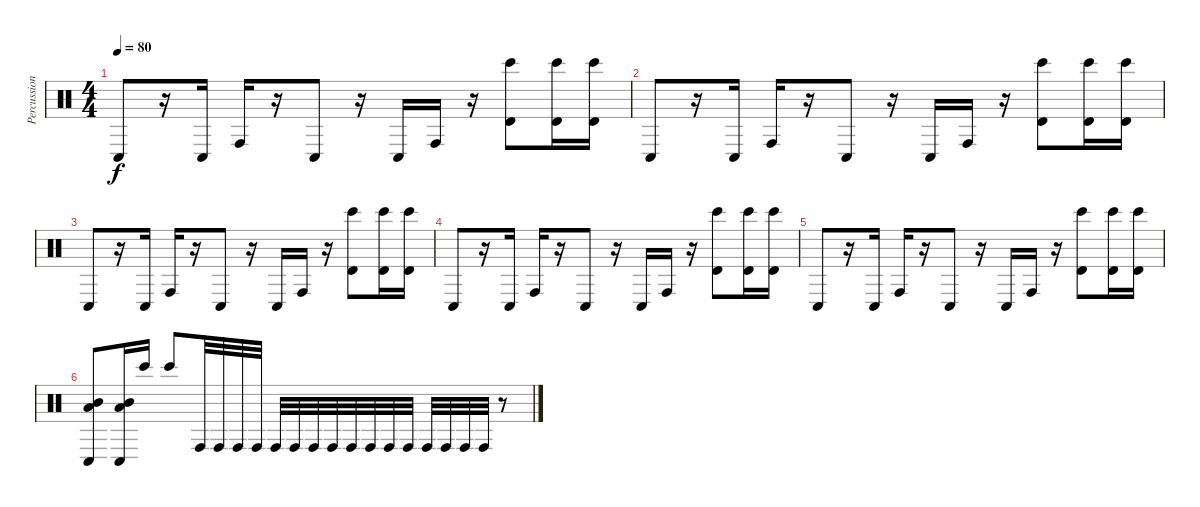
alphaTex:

\track ("Percussion" "Percussion") {instrument percussion}
\staff {score}
\articulation defaults
\ts (4 4)
\tempo 80
\clef neutral
\ks c "Conga low (hit)".8{dy f}
r.16 "Conga low (hit)".16 "Conga high (hit)".16 r.16 "Conga low (hit)".8 r.16 "Conga low (hit)".16 "Conga high (hit)".16 r.16 ("Bongo High (hit)" "Timbale high (hit)").8 ("Bongo High (hit)" "Timbale high (hit)").16 ("Bongo High (hit)" "Timbale high (hit)").16 |
"Conga low (hit)".8 r.16 "Conga low (hit)".16 "Conga high (hit)".16 r.16 "Conga low (hit)".8 r.16 "Conga low (hit)".16 "Conga high (hit)".16 r.16 ("Bongo High (hit)" "Timbale high (hit)").8 ("Bongo High (hit)" "Timbale high (hit)").16 ("Bongo High (hit)" "Timbale high (hit)").16 |
"Conga low (hit)".8 r.16 "Conga low (hit)".16 "Conga high (hit)".16 r.16 "Conga low (hit)".8 r.16 "Conga low (hit)".16 "Conga high (hit)".16 r.16 ("Bongo High (hit)" "Timbale high (hit)").8 ("Bongo High (hit)" "Timbale high (hit)").16 ("Bongo High (hit)" "Timbale high (hit)").16 |
"Conga low (hit)".8 r.16 "Conga low (hit)".16 "Conga high (hit)".16 r.16 "Conga low (hit)".8 r.16 "Conga low (hit)".16 "Conga high (hit)".16 r.16 ("Bongo High (hit)" "Timbale high (hit)").8 ("Bongo High (hit)" "Timbale high (hit)").16 ("Bongo High (hit)" "Timbale high (hit)").16 |
"Conga low (hit)".8 r.16 "Conga low (hit)".16 "Conga high (hit)".16 r.16 "Conga low (hit)".8 r.16 "Conga low (hit)".16 "Conga high (hit)".16 r.16 ("Bongo High (hit)" "Timbale high (hit)").8 ("Bongo High (hit)" "Timbale high (hit)").16 ("Bongo High (hit)" "Timbale high (hit)").16 |
("Conga low (hit)" "Mid Tom (hit)" "Low Tom (hit)").8 ("Conga low (hit)" "Mid Tom (hit)" "Low Tom (hit)").16 "Bongo High (hit)".16 "Bongo High (hit)".8 "Conga high (hit)".32 "Conga high (hit)".32 "Conga high (hit)".32 "Conga high (hit)".32 "Conga high (hit)".32 "Conga high (hit)".32 "Conga high (hit)".32 "Conga high (hit)".32 "Conga high (hit)".32 "Conga high (hit)".32 "Conga high (hit)".32 "Conga high (hit)".32 "Conga high (hit)".32 "Conga high (hit)".32 "Conga high (hit)".32 "Conga high (hit)".32 r.8
